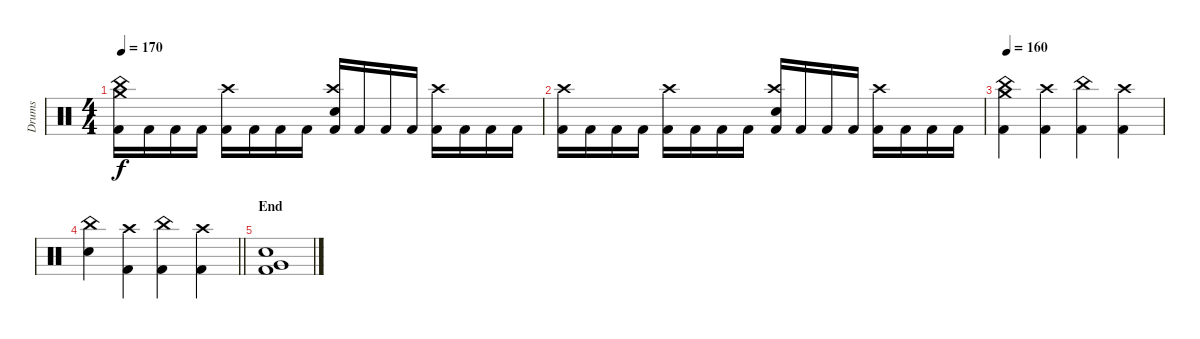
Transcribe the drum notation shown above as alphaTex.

\track ("Drums" "Drums") {instrument percussion}
\staff {score}
\articulation defaults
\ts (4 4)
\tempo 170
\clef neutral
\ks c
("China (hit)" "Crash medium (hit)" "Kick (hit) 2").16{dy f} "Kick (hit) 2".16 "Kick (hit) 2".16 "Kick (hit) 2".16 ("Crash high (hit)" "Kick (hit) 2").16 "Kick (hit) 2".16 "Kick (hit) 2".16 "Kick (hit) 2".16 ("Crash high (hit)" "Electric Snare (hit)" "Kick (hit) 2").16 "Kick (hit) 2".16 "Kick (hit) 2".16 "Kick (hit) 2".16 ("Crash high (hit)" "Kick (hit) 2").16 "Kick (hit) 2".16 "Kick (hit) 2".16 "Kick (hit) 2".16 |
("Crash high (hit)" "Kick (hit) 2").16 "Kick (hit) 2".16 "Kick (hit) 2".16 "Kick (hit) 2".16 ("Crash high (hit)" "Kick (hit) 2").16 "Kick (hit) 2".16 "Kick (hit) 2".16 "Kick (hit) 2".16 ("Crash high (hit)" "Electric Snare (hit)" "Kick (hit) 2").16 "Kick (hit) 2".16 "Kick (hit) 2".16 "Kick (hit) 2".16 ("Crash high (hit)" "Kick (hit) 2").16 "Kick (hit) 2".16 "Kick (hit) 2".16 "Kick (hit) 2".16 |
\tempo 160
("China (hit)" "Crash medium (hit)" "Kick (hit) 2").4 ("Crash high (hit)" "Kick (hit) 2").4 ("China (hit)" "Kick (hit) 2").4 ("Crash high (hit)" "Kick (hit) 2").4 |
\barLineRight lightlight
("China (hit)" "Electric Snare (hit)").4 ("Crash high (hit)" "Kick (hit) 2").4 ("China (hit)" "Kick (hit) 2").4 ("Crash high (hit)" "Kick (hit) 2").4 |
\section ("" "End")
("Very Low Tom (hit)" "Electric Snare (hit)" "Kick (hit) 2").1
